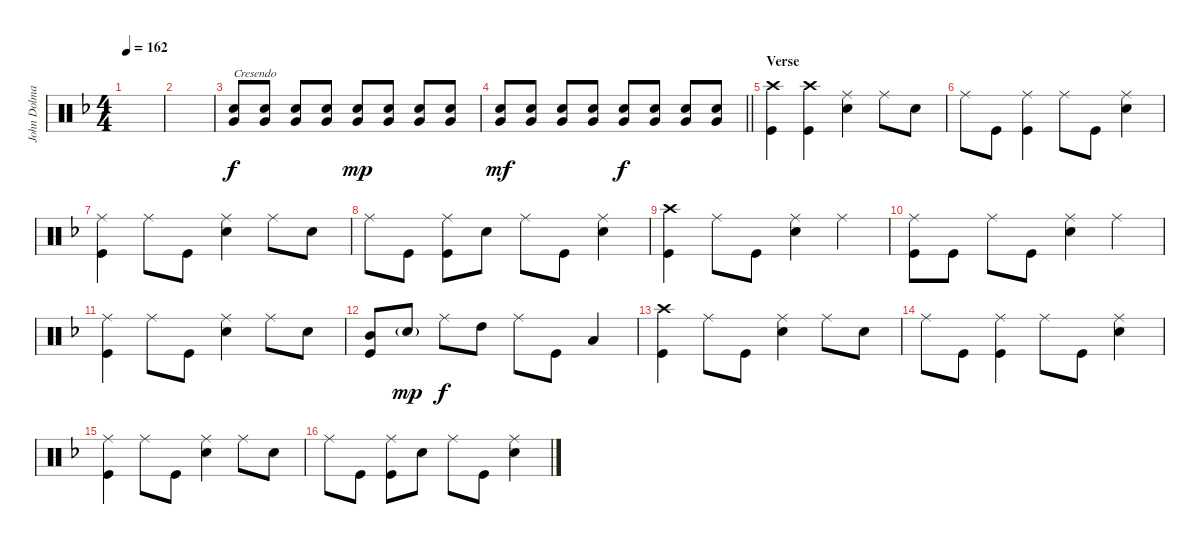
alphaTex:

\track ("John Dolmayan" "John Dolma") {instrument percussion}
\staff {score}
\articulation defaults
\ts (4 4)
\tempo 162
\clef neutral
\ks dminor
|
|
("Very Low Tom (hit)" "Snare (hit) 2").8{txt "Cresendo"} ("Very Low Tom (hit)" "Snare (hit) 2").8 ("Very Low Tom (hit)" "Snare (hit) 2").8 ("Very Low Tom (hit)" "Snare (hit) 2").8 ("Very Low Tom (hit)" "Snare (hit) 2").8{dy mp} ("Snare (hit) 2" "Very Low Tom (hit)").8 ("Very Low Tom (hit)" "Snare (hit) 2").8 ("Very Low Tom (hit)" "Snare (hit) 2").8 |
\barLineRight lightlight
("Very Low Tom (hit)" "Snare (hit) 2").8{dy mf} ("Very Low Tom (hit)" "Snare (hit) 2").8 ("Very Low Tom (hit)" "Snare (hit) 2").8 ("Very Low Tom (hit)" "Snare (hit) 2").8 ("Very Low Tom (hit)" "Snare (hit) 2").8{dy f} ("Snare (hit) 2" "Very Low Tom (hit)").8 ("Very Low Tom (hit)" "Snare (hit) 2").8 ("Very Low Tom (hit)" "Snare (hit) 2").8 |
\section ("" "Verse")
("Crash high (hit)" "Kick (hit)").4 ("Kick (hit)" "Crash high (hit)").4 ("Ride (middle)" "Snare (hit) 2").4 "Ride (middle)".8 "Snare (hit) 2".8 |
"Ride (middle)".8 "Kick (hit)".8 ("Kick (hit)" "Ride (middle)").4 "Ride (middle)".8 "Kick (hit)".8 ("Snare (hit) 2" "Ride (middle)").4 |
("Ride (middle)" "Kick (hit)").4 "Ride (middle)".8 "Kick (hit)".8 ("Ride (middle)" "Snare (hit) 2").4 "Ride (middle)".8 "Snare (hit) 2".8 |
"Ride (middle)".8 "Kick (hit)".8 ("Ride (middle)" "Kick (hit)").8 "Snare (hit) 2".8 "Ride (middle)".8 "Kick (hit)".8 ("Ride (middle)" "Snare (hit) 2").4 |
("Crash high (hit)" "Kick (hit)").4 "Ride (middle)".8 "Kick (hit)".8 ("Ride (middle)" "Snare (hit) 2").4 "Ride (middle)".4 |
("Ride (middle)" "Kick (hit)").8 "Kick (hit)".8 "Ride (middle)".8 "Kick (hit)".8 ("Ride (middle)" "Snare (hit) 2").4 "Ride (middle)".4 |
("Ride (middle)" "Kick (hit)").4 "Ride (middle)".8 "Kick (hit)".8 ("Ride (middle)" "Snare (hit) 2").4 "Ride (middle)".8 "Snare (hit) 2".8 |
("Mid Tom (hit)" "Kick (hit)").8 "Snare (hit) 2"{g}.8{dy mp} "Ride (middle)".8{dy f} "High Tom (hit)".8 "Ride (middle)".8 "Kick (hit)".8 "Low Floor Tom (hit)".4 |
("Crash high (hit)" "Kick (hit)").4 "Ride (middle)".8 "Kick (hit)".8 ("Ride (middle)" "Snare (hit) 2").4 "Ride (middle)".8 "Snare (hit) 2".8 |
"Ride (middle)".8 "Kick (hit)".8 ("Ride (middle)" "Kick (hit)").4 "Ride (middle)".8 "Kick (hit)".8 ("Ride (middle)" "Snare (hit) 2").4 |
("Ride (middle)" "Kick (hit)").4 "Ride (middle)".8 "Kick (hit)".8 ("Ride (middle)" "Snare (hit) 2").4 "Ride (middle)".8 "Snare (hit) 2".8 |
"Ride (middle)".8 "Kick (hit)".8 ("Ride (middle)" "Kick (hit)").8 "Snare (hit) 2".8 "Ride (middle)".8 "Kick (hit)".8 ("Ride (middle)" "Snare (hit) 2").4
